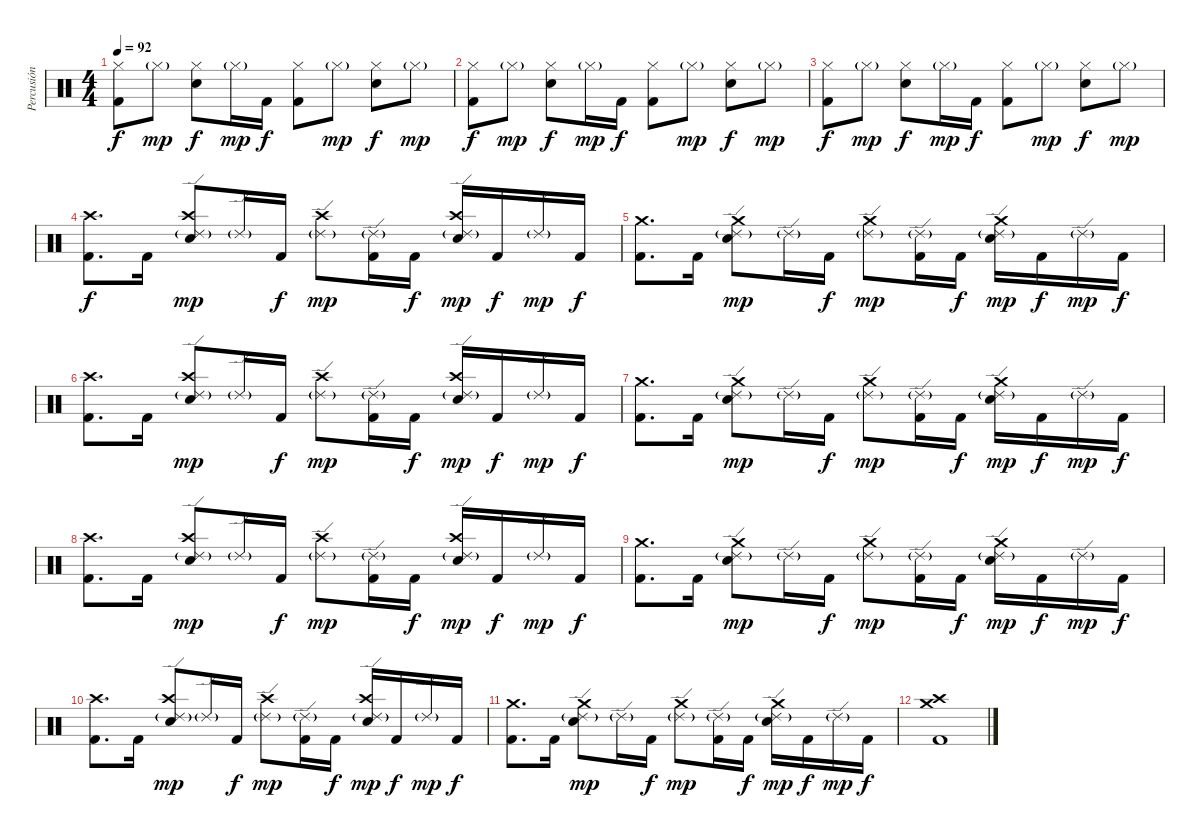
\track ("Percusión" "Percusión") {instrument percussion}
\staff {score}
\articulation defaults
\ts (4 4)
\tempo 92
\clef neutral
\ks c
("Hi-Hat (closed)" "Kick (hit) 2").8{dy f} "Hi-Hat (closed)"{g}.8{dy mp} ("Hi-Hat (closed)" "Snare (hit) 2").8{dy f} "Hi-Hat (closed)"{g}.16{dy mp} "Kick (hit) 2".16{dy f} ("Hi-Hat (closed)" "Kick (hit) 2").8 "Hi-Hat (closed)"{g}.8{dy mp} ("Hi-Hat (closed)" "Snare (hit) 2").8{dy f} "Hi-Hat (closed)"{g}.8{dy mp} |
("Hi-Hat (closed)" "Kick (hit) 2").8{dy f} "Hi-Hat (closed)"{g}.8{dy mp} ("Hi-Hat (closed)" "Snare (hit) 2").8{dy f} "Hi-Hat (closed)"{g}.16{dy mp} "Kick (hit) 2".16{dy f} ("Hi-Hat (closed)" "Kick (hit) 2").8 "Hi-Hat (closed)"{g}.8{dy mp} ("Hi-Hat (closed)" "Snare (hit) 2").8{dy f} "Hi-Hat (closed)"{g}.8{dy mp} |
("Hi-Hat (closed)" "Kick (hit) 2").8{dy f} "Hi-Hat (closed)"{g}.8{dy mp} ("Hi-Hat (closed)" "Snare (hit) 2").8{dy f} "Hi-Hat (closed)"{g}.16{dy mp} "Kick (hit) 2".16{dy f} ("Hi-Hat (closed)" "Kick (hit) 2").8 "Hi-Hat (closed)"{g}.8{dy mp} ("Hi-Hat (closed)" "Snare (hit) 2").8{dy f} "Hi-Hat (closed)"{g}.8{dy mp} |
("Crash high (hit)" "Kick (hit) 2").8{d dy f} "Kick (hit) 2".16 ("Crash high (hit)" "Ride (edge) 2"{g} "Snare (hit) 2").8{dy mp} "Ride (edge) 2"{g}.16 "Kick (hit) 2".16{dy f} ("Crash high (hit)" "Ride (edge) 2"{g}).8{dy mp} ("Ride (edge) 2"{g} "Kick (hit) 2").16 "Kick (hit) 2".16{dy f} ("Crash high (hit)" "Ride (edge) 2"{g} "Snare (hit) 2").16{dy mp} "Kick (hit) 2".16{dy f} "Ride (edge) 2"{g}.16{dy mp} "Kick (hit) 2".16{dy f} |
("Crash medium (hit)" "Kick (hit) 2").8{d} "Kick (hit) 2".16 ("Crash medium (hit)" "Ride (edge) 2"{g} "Snare (hit) 2").8{dy mp} "Ride (edge) 2"{g}.16 "Kick (hit) 2".16{dy f} ("Crash medium (hit)" "Ride (edge) 2"{g}).8{dy mp} ("Ride (edge) 2"{g} "Kick (hit) 2").16 "Kick (hit) 2".16{dy f} ("Crash medium (hit)" "Ride (edge) 2"{g} "Snare (hit) 2").16{dy mp} "Kick (hit) 2".16{dy f} "Ride (edge) 2"{g}.16{dy mp} "Kick (hit) 2".16{dy f} |
("Crash high (hit)" "Kick (hit) 2").8{d} "Kick (hit) 2".16 ("Crash high (hit)" "Ride (edge) 2"{g} "Snare (hit) 2").8{dy mp} "Ride (edge) 2"{g}.16 "Kick (hit) 2".16{dy f} ("Crash high (hit)" "Ride (edge) 2"{g}).8{dy mp} ("Ride (edge) 2"{g} "Kick (hit) 2").16 "Kick (hit) 2".16{dy f} ("Crash high (hit)" "Ride (edge) 2"{g} "Snare (hit) 2").16{dy mp} "Kick (hit) 2".16{dy f} "Ride (edge) 2"{g}.16{dy mp} "Kick (hit) 2".16{dy f} |
("Crash medium (hit)" "Kick (hit) 2").8{d} "Kick (hit) 2".16 ("Crash medium (hit)" "Ride (edge) 2"{g} "Snare (hit) 2").8{dy mp} "Ride (edge) 2"{g}.16 "Kick (hit) 2".16{dy f} ("Crash medium (hit)" "Ride (edge) 2"{g}).8{dy mp} ("Ride (edge) 2"{g} "Kick (hit) 2").16 "Kick (hit) 2".16{dy f} ("Crash medium (hit)" "Ride (edge) 2"{g} "Snare (hit) 2").16{dy mp} "Kick (hit) 2".16{dy f} "Ride (edge) 2"{g}.16{dy mp} "Kick (hit) 2".16{dy f} |
("Crash high (hit)" "Kick (hit) 2").8{d} "Kick (hit) 2".16 ("Crash high (hit)" "Ride (edge) 2"{g} "Snare (hit) 2").8{dy mp} "Ride (edge) 2"{g}.16 "Kick (hit) 2".16{dy f} ("Crash high (hit)" "Ride (edge) 2"{g}).8{dy mp} ("Ride (edge) 2"{g} "Kick (hit) 2").16 "Kick (hit) 2".16{dy f} ("Crash high (hit)" "Ride (edge) 2"{g} "Snare (hit) 2").16{dy mp} "Kick (hit) 2".16{dy f} "Ride (edge) 2"{g}.16{dy mp} "Kick (hit) 2".16{dy f} |
("Crash medium (hit)" "Kick (hit) 2").8{d} "Kick (hit) 2".16 ("Crash medium (hit)" "Ride (edge) 2"{g} "Snare (hit) 2").8{dy mp} "Ride (edge) 2"{g}.16 "Kick (hit) 2".16{dy f} ("Crash medium (hit)" "Ride (edge) 2"{g}).8{dy mp} ("Ride (edge) 2"{g} "Kick (hit) 2").16 "Kick (hit) 2".16{dy f} ("Crash medium (hit)" "Ride (edge) 2"{g} "Snare (hit) 2").16{dy mp} "Kick (hit) 2".16{dy f} "Ride (edge) 2"{g}.16{dy mp} "Kick (hit) 2".16{dy f} |
("Crash high (hit)" "Kick (hit) 2").8{d} "Kick (hit) 2".16 ("Crash high (hit)" "Ride (edge) 2"{g} "Snare (hit) 2").8{dy mp} "Ride (edge) 2"{g}.16 "Kick (hit) 2".16{dy f} ("Crash high (hit)" "Ride (edge) 2"{g}).8{dy mp} ("Ride (edge) 2"{g} "Kick (hit) 2").16 "Kick (hit) 2".16{dy f} ("Crash high (hit)" "Ride (edge) 2"{g} "Snare (hit) 2").16{dy mp} "Kick (hit) 2".16{dy f} "Ride (edge) 2"{g}.16{dy mp} "Kick (hit) 2".16{dy f} |
("Crash medium (hit)" "Kick (hit) 2").8{d} "Kick (hit) 2".16 ("Crash medium (hit)" "Ride (edge) 2"{g} "Snare (hit) 2").8{dy mp} "Ride (edge) 2"{g}.16 "Kick (hit) 2".16{dy f} ("Crash medium (hit)" "Ride (edge) 2"{g}).8{dy mp} ("Ride (edge) 2"{g} "Kick (hit) 2").16 "Kick (hit) 2".16{dy f} ("Crash medium (hit)" "Ride (edge) 2"{g} "Snare (hit) 2").16{dy mp} "Kick (hit) 2".16{dy f} "Ride (edge) 2"{g}.16{dy mp} "Kick (hit) 2".16{dy f} |
("Crash medium (hit)" "Crash high (hit)" "Kick (hit) 2").1
